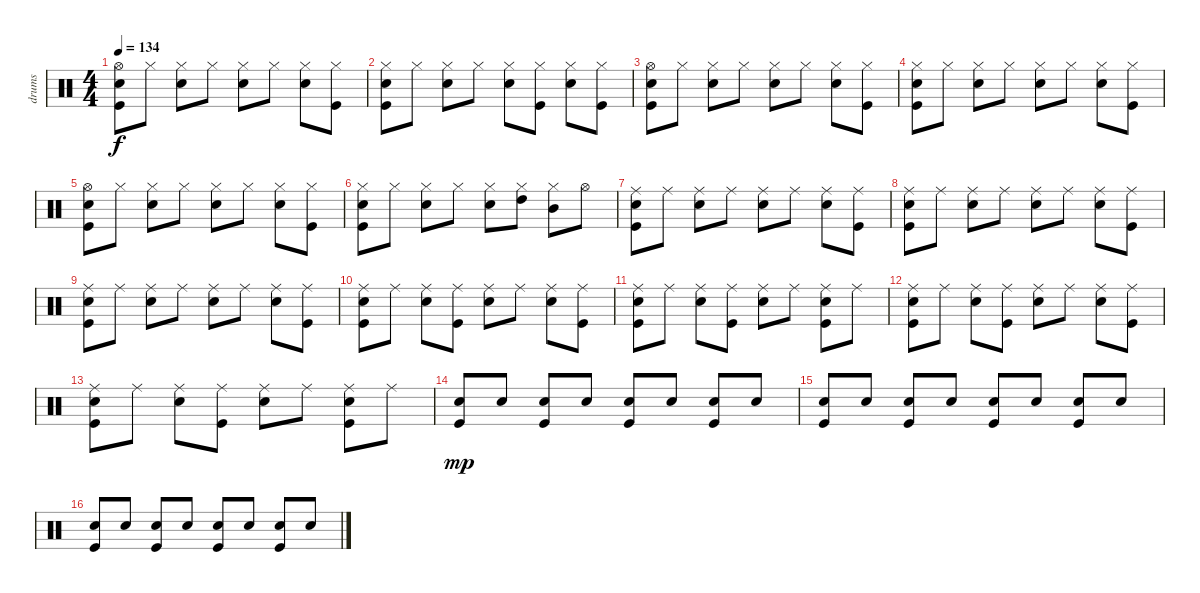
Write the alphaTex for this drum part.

\track ("drums" "drums") {instrument percussion}
\staff {score}
\articulation defaults
\ts (4 4)
\tempo 134
\clef neutral
\ks c
("Hi-Hat (open)" "Snare (hit) 2" "Kick (hit)").8{dy f} "Hi-Hat (closed)".8 ("Hi-Hat (closed)" "Snare (hit) 2").8 "Hi-Hat (closed)".8 ("Hi-Hat (closed)" "Snare (hit) 2").8 "Hi-Hat (closed)".8 ("Hi-Hat (closed)" "Snare (hit) 2").8 ("Hi-Hat (closed)" "Kick (hit)").8 |
("Hi-Hat (closed)" "Snare (hit) 2" "Kick (hit)").8 "Hi-Hat (closed)".8 ("Hi-Hat (closed)" "Snare (hit) 2").8 "Hi-Hat (closed)".8 ("Hi-Hat (closed)" "Snare (hit) 2").8 ("Hi-Hat (closed)" "Kick (hit)").8 ("Hi-Hat (closed)" "Snare (hit) 2").8 ("Hi-Hat (closed)" "Kick (hit)").8 |
("Hi-Hat (open)" "Snare (hit) 2" "Kick (hit)").8 "Hi-Hat (closed)".8 ("Hi-Hat (closed)" "Snare (hit) 2").8 "Hi-Hat (closed)".8 ("Hi-Hat (closed)" "Snare (hit) 2").8 "Hi-Hat (closed)".8 ("Hi-Hat (closed)" "Snare (hit) 2").8 ("Hi-Hat (closed)" "Kick (hit)").8 |
("Hi-Hat (closed)" "Snare (hit) 2" "Kick (hit)").8 "Hi-Hat (closed)".8 ("Hi-Hat (closed)" "Snare (hit) 2").8 "Hi-Hat (closed)".8 ("Hi-Hat (closed)" "Snare (hit) 2").8 "Hi-Hat (closed)".8 ("Hi-Hat (closed)" "Snare (hit) 2").8 ("Hi-Hat (closed)" "Kick (hit)").8 |
("Hi-Hat (open)" "Snare (hit) 2" "Kick (hit)").8 "Hi-Hat (closed)".8 ("Hi-Hat (closed)" "Snare (hit) 2").8 "Hi-Hat (closed)".8 ("Hi-Hat (closed)" "Snare (hit) 2").8 "Hi-Hat (closed)".8 ("Hi-Hat (closed)" "Snare (hit) 2").8 ("Hi-Hat (closed)" "Kick (hit)").8 |
("Hi-Hat (closed)" "Snare (hit) 2" "Kick (hit)").8 "Hi-Hat (closed)".8 ("Hi-Hat (closed)" "Snare (hit) 2").8 "Hi-Hat (closed)".8 ("Hi-Hat (closed)" "Snare (hit) 2").8 ("Hi-Hat (closed)" "High Tom (hit)").8 ("Hi-Hat (closed)" "Mid Tom (hit)").8 "Hi-Hat (open)".8 |
("Ride (middle)" "Snare (hit) 2" "Kick (hit)").8 "Ride (middle)".8 ("Ride (middle)" "Snare (hit) 2").8 "Ride (middle)".8 ("Ride (middle)" "Snare (hit) 2").8 "Ride (middle)".8 ("Ride (middle)" "Snare (hit) 2").8 ("Ride (middle)" "Kick (hit)").8 |
("Ride (middle)" "Snare (hit) 2" "Kick (hit)").8 "Ride (middle)".8 ("Ride (middle)" "Snare (hit) 2").8 "Ride (middle)".8 ("Ride (middle)" "Snare (hit) 2").8 "Ride (middle)".8 ("Ride (middle)" "Snare (hit) 2").8 ("Ride (middle)" "Kick (hit)").8 |
("Ride (middle)" "Snare (hit) 2" "Kick (hit)").8 "Ride (middle)".8 ("Ride (middle)" "Snare (hit) 2").8 "Ride (middle)".8 ("Ride (middle)" "Snare (hit) 2").8 "Ride (middle)".8 ("Ride (middle)" "Snare (hit) 2").8 ("Ride (middle)" "Kick (hit)").8 |
("Ride (middle)" "Snare (hit) 2" "Kick (hit)").8 "Ride (middle)".8 ("Ride (middle)" "Snare (hit) 2").8 ("Ride (middle)" "Kick (hit)").8 ("Ride (middle)" "Snare (hit) 2").8 "Ride (middle)".8 ("Ride (middle)" "Snare (hit) 2").8 ("Ride (middle)" "Kick (hit)").8 |
("Ride (middle)" "Snare (hit) 2" "Kick (hit)").8 "Ride (middle)".8 ("Ride (middle)" "Snare (hit) 2").8 ("Ride (middle)" "Kick (hit)").8 ("Ride (middle)" "Snare (hit) 2").8 "Ride (middle)".8 ("Ride (middle)" "Snare (hit) 2" "Kick (hit)").8 "Ride (middle)".8 |
("Ride (middle)" "Snare (hit) 2" "Kick (hit)").8 "Ride (middle)".8 ("Ride (middle)" "Snare (hit) 2").8 ("Ride (middle)" "Kick (hit)").8 ("Ride (middle)" "Snare (hit) 2").8 "Ride (middle)".8 ("Ride (middle)" "Snare (hit) 2").8 ("Ride (middle)" "Kick (hit)").8 |
("Ride (middle)" "Snare (hit) 2" "Kick (hit)").8 "Ride (middle)".8 ("Ride (middle)" "Snare (hit) 2").8 ("Ride (middle)" "Kick (hit)").8 ("Ride (middle)" "Snare (hit) 2").8 "Ride (middle)".8 ("Ride (middle)" "Snare (hit) 2" "Kick (hit)").8 "Ride (middle)".8 |
("Snare (hit) 2" "Kick (hit)").8{dy mp} "Snare (hit) 2".8 ("Snare (hit) 2" "Kick (hit)").8 "Snare (hit) 2".8 ("Snare (hit) 2" "Kick (hit)").8 "Snare (hit) 2".8 ("Snare (hit) 2" "Kick (hit)").8 "Snare (hit) 2".8 |
("Snare (hit) 2" "Kick (hit)").8 "Snare (hit) 2".8 ("Snare (hit) 2" "Kick (hit)").8 "Snare (hit) 2".8 ("Snare (hit) 2" "Kick (hit)").8 "Snare (hit) 2".8 ("Snare (hit) 2" "Kick (hit)").8 "Snare (hit) 2".8 |
("Snare (hit) 2" "Kick (hit)").8 "Snare (hit) 2".8 ("Snare (hit) 2" "Kick (hit)").8 "Snare (hit) 2".8 ("Snare (hit) 2" "Kick (hit)").8 "Snare (hit) 2".8 ("Snare (hit) 2" "Kick (hit)").8 "Snare (hit) 2".8
